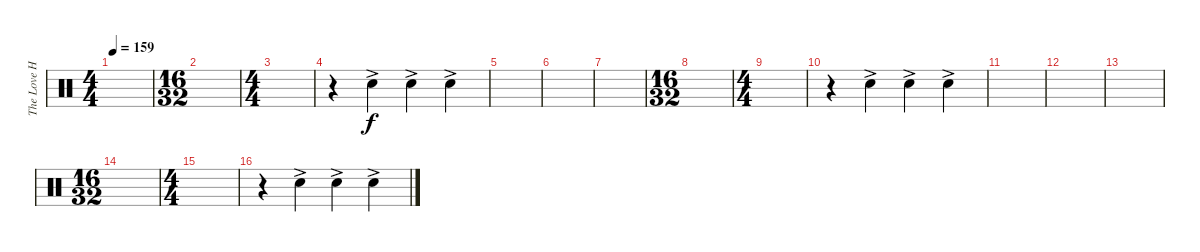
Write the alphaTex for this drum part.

\track ("The Love Haters (Hand Clap)(Drums)" "The Love H") {instrument percussion}
\staff {score}
\articulation defaults
\ts (4 4)
\tempo 159
\clef neutral
\ks c
|
\ts (16 32)
|
\ts (4 4)
|
r.4 "Hand Clap (hit)"{ac}.4 "Hand Clap (hit)"{ac}.4 "Hand Clap (hit)"{ac}.4 |
|
|
|
\ts (16 32)
|
\ts (4 4)
|
r.4 "Hand Clap (hit)"{ac}.4 "Hand Clap (hit)"{ac}.4 "Hand Clap (hit)"{ac}.4 |
|
|
|
\ts (16 32)
|
\ts (4 4)
|
r.4 "Hand Clap (hit)"{ac}.4 "Hand Clap (hit)"{ac}.4 "Hand Clap (hit)"{ac}.4
